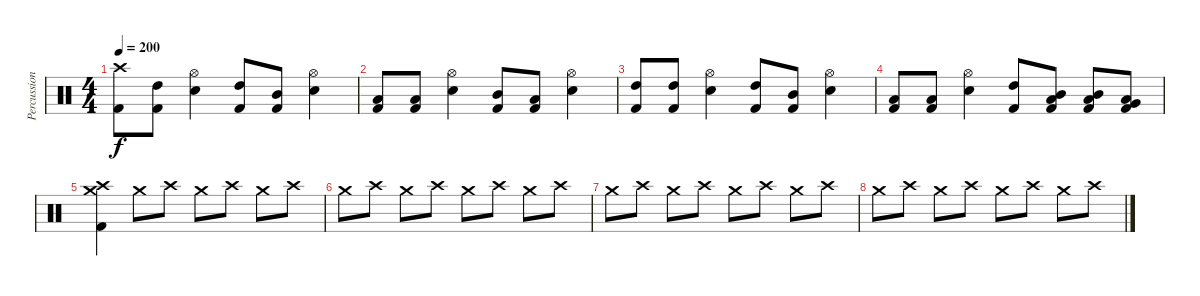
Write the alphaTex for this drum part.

\track ("Percussioni" "Percussion") {instrument percussion}
\staff {score}
\articulation defaults
\ts (4 4)
\tempo 200
\clef neutral
\ks c
("Crash high (hit)" "Kick (hit) 2").8{dy f} ("High Tom (hit)" "Kick (hit) 2").8 ("Hi-Hat (open)" "Electric Snare (hit)").4 ("High Tom (hit)" "Kick (hit) 2").8 ("Mid Tom (hit)" "Kick (hit) 2").8 ("Hi-Hat (open)" "Electric Snare (hit)").4 |
("Low Tom (hit)" "Kick (hit) 2").8 ("Low Tom (hit)" "Kick (hit) 2").8 ("Hi-Hat (open)" "Electric Snare (hit)").4 ("Mid Tom (hit)" "Kick (hit) 2").8 ("Low Tom (hit)" "Kick (hit) 2").8 ("Hi-Hat (open)" "Electric Snare (hit)").4 |
("High Tom (hit)" "Kick (hit) 2").8 ("High Tom (hit)" "Kick (hit) 2").8 ("Hi-Hat (open)" "Electric Snare (hit)").4 ("High Tom (hit)" "Kick (hit) 2").8 ("Mid Tom (hit)" "Kick (hit) 2").8 ("Hi-Hat (open)" "Electric Snare (hit)").4 |
("Low Tom (hit)" "Kick (hit) 2").8 ("Low Tom (hit)" "Kick (hit) 2").8 ("Hi-Hat (open)" "Electric Snare (hit)").4 ("High Tom (hit)" "Kick (hit) 2").8 ("Mid Tom (hit)" "Low Tom (hit)" "Kick (hit) 2").8 ("Mid Tom (hit)" "Low Tom (hit)" "Kick (hit) 2").8 ("Low Tom (hit)" "Very Low Tom (hit)" "Kick (hit) 2").8 |
("Crash high (hit)" "Crash medium (hit)" "Kick (hit) 2").4{volume 0} "Crash medium (hit)".8 "Crash high (hit)".8 "Crash medium (hit)".8 "Crash high (hit)".8 "Crash medium (hit)".8 "Crash high (hit)".8 |
"Crash medium (hit)".8 "Crash high (hit)".8 "Crash medium (hit)".8 "Crash high (hit)".8 "Crash medium (hit)".8 "Crash high (hit)".8 "Crash medium (hit)".8 "Crash high (hit)".8 |
"Crash medium (hit)".8 "Crash high (hit)".8 "Crash medium (hit)".8 "Crash high (hit)".8 "Crash medium (hit)".8 "Crash high (hit)".8 "Crash medium (hit)".8 "Crash high (hit)".8 |
"Crash medium (hit)".8 "Crash high (hit)".8 "Crash medium (hit)".8 "Crash high (hit)".8 "Crash medium (hit)".8 "Crash high (hit)".8 "Crash medium (hit)".8 "Crash high (hit)".8
